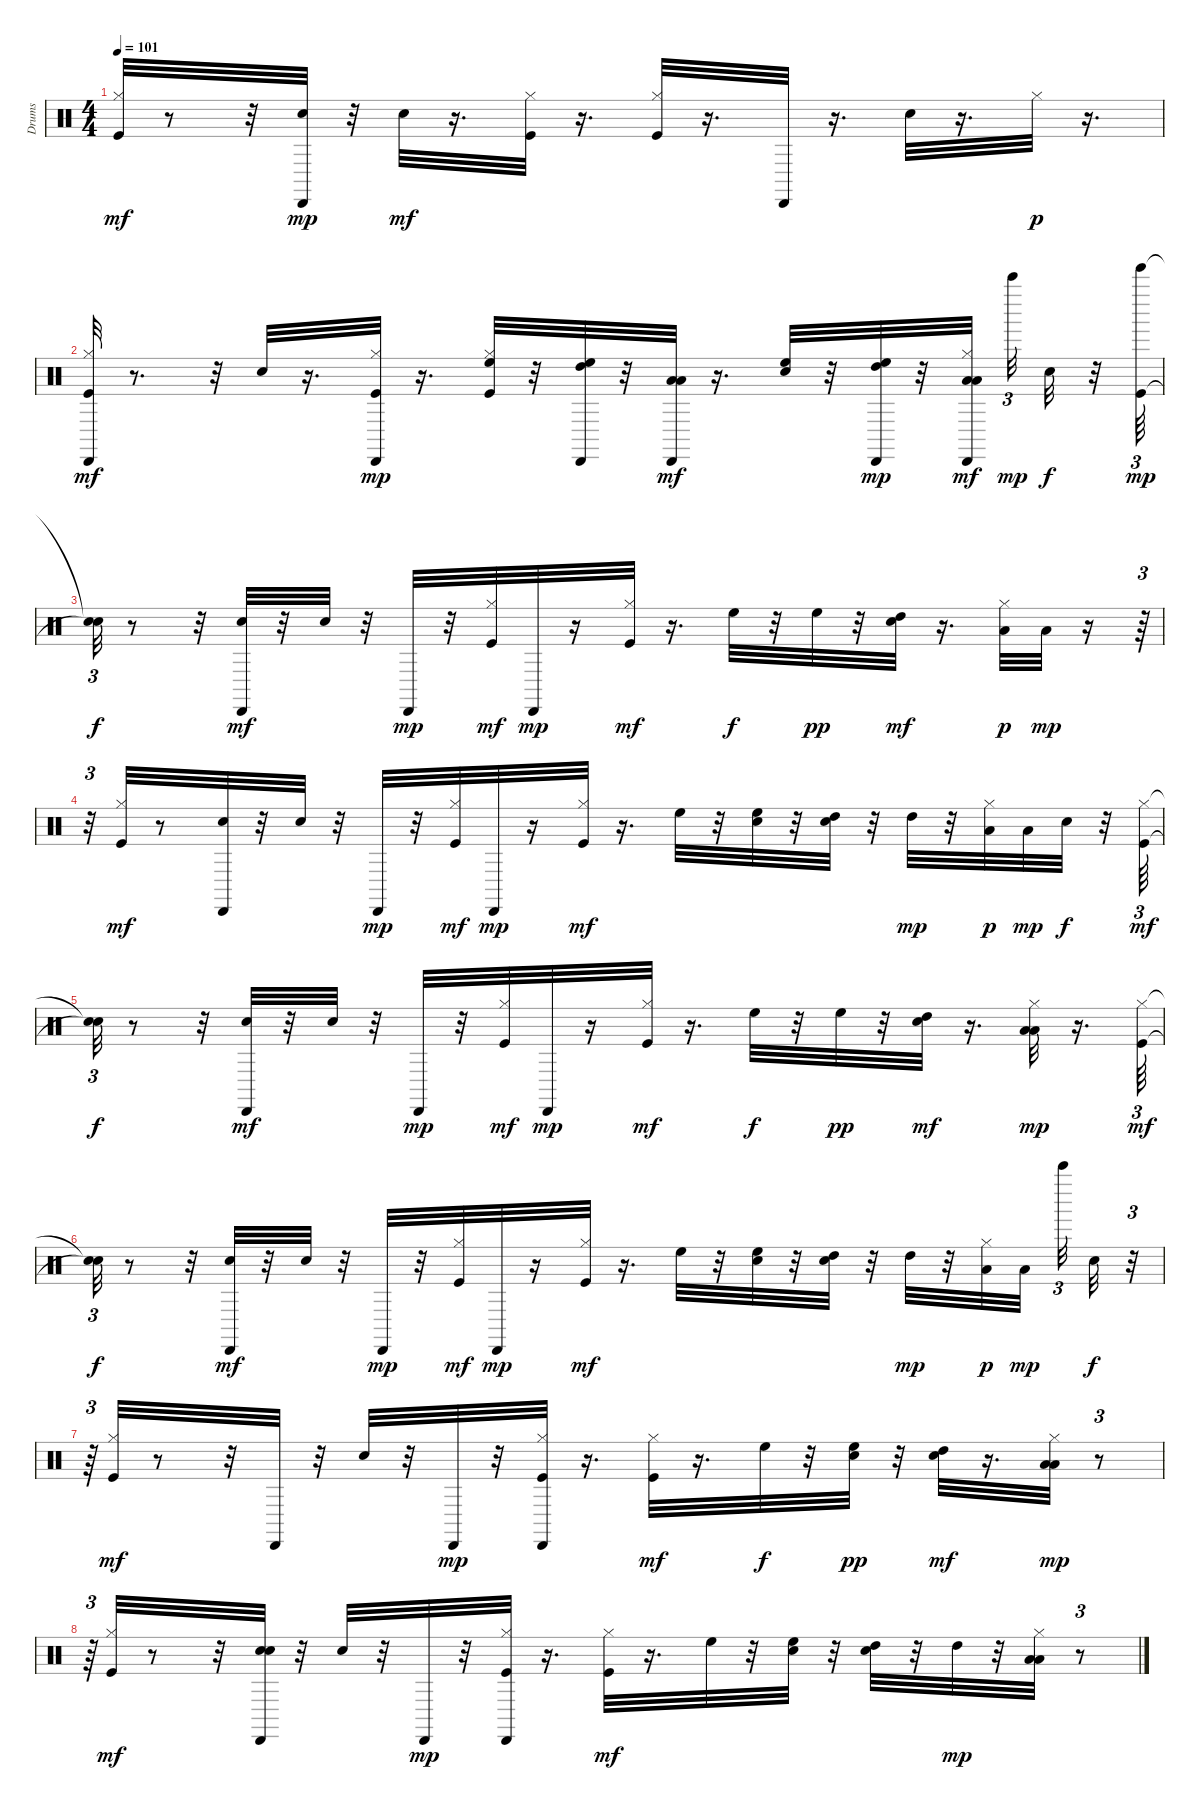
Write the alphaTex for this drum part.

\track ("Drums" "Drums") {instrument percussion}
\staff {score}
\articulation defaults
\ts (4 4)
\tempo 101
\clef neutral
\ks c
("Kick (hit)" "Hi-Hat (closed)").32{dy mf} r.8 r.32 ("Hand Clap (hit)" "Cabasa (hit)").32{dy mp} r.32 "Snare (hit) 2".32{dy mf} r.16{d} ("Kick (hit)" "Hi-Hat (closed)").32 r.16{d} ("Kick (hit)" "Hi-Hat (closed)").32 r.16{d} "Cabasa (hit)".32 r.16{d} "Snare (hit) 2".32 r.16{d} "Hi-Hat (closed)".32{dy p} r.16{d} |
("Kick (hit)" "Hi-Hat (closed)" "Cabasa (hit)").32{dy mf} r.8{d} r.32 "Snare (hit) 2".32 r.16{d} ("Kick (hit)" "Hi-Hat (closed)" "Cabasa (hit)").32{dy mp} r.16{d} ("Kick (hit)" "Hi-Hat (closed)" "High Floor Tom (hit)").32 r.32 ("High Tom (hit)" "High Floor Tom (hit)" "Cabasa (hit)").32 r.32 ("Low Floor Tom (hit)" "Low Tom (hit)" "Cabasa (hit)").32{dy mf} r.16{d} ("Snare (hit) 2" "High Floor Tom (hit)").32 r.32 ("High Tom (hit)" "High Floor Tom (hit)" "Cabasa (hit)").32{dy mp} r.32 ("Low Floor Tom (hit)" "Hi-Hat (closed)" "Low Tom (hit)" "Cabasa (hit)").32{dy mf beam splitsecondary} "Bell Tree (hit)".32{tu (3 2) dy mp} "Hand Clap (hit)".32{dy f} r.32 ("Kick (hit)" "Tinkle Bell (hit)").64{tu (3 2) dy mp} |
("Snare (hit)"{t} "Snare (hit)"{t}).32{tu (3 2) dy f} r.8 r.32 ("Hand Clap (hit)" "Cabasa (hit)").32{dy mf} r.32 "Snare (hit) 2".32 r.32 "Cabasa (hit)".32{dy mp} r.32 ("Kick (hit)" "Hi-Hat (closed)").32{dy mf} "Cabasa (hit)".32{dy mp} r.16 ("Kick (hit)" "Hi-Hat (closed)").32{dy mf} r.16{d} "High Floor Tom (hit)".32{dy f} r.32 "High Floor Tom (hit)".32{dy pp} r.32 ("Snare (hit) 2" "High Tom (hit)").32{dy mf} r.16{d} ("Low Floor Tom (hit)" "Hi-Hat (closed)").32{dy p} "Low Tom (hit)".32{dy mp} r.16 r.64{tu (3 2)} |
r.32{tu (3 2)} ("Kick (hit)" "Hi-Hat (closed)").32{dy mf} r.8 ("Hand Clap (hit)" "Cabasa (hit)").32 r.32 "Snare (hit) 2".32 r.32 "Cabasa (hit)".32{dy mp} r.32 ("Kick (hit)" "Hi-Hat (closed)").32{dy mf} "Cabasa (hit)".32{dy mp} r.16 ("Kick (hit)" "Hi-Hat (closed)").32{dy mf} r.16{d} "High Floor Tom (hit)".32 r.32 ("Hand Clap (hit)" "High Floor Tom (hit)").32 r.32 ("Snare (hit) 2" "High Tom (hit)").32 r.32 "High Tom (hit)".32{dy mp} r.32 ("Low Floor Tom (hit)" "Hi-Hat (closed)").32{dy p} "Low Tom (hit)".32{dy mp} "Hand Clap (hit)".32{dy f} r.32 ("Kick (hit)" "Hi-Hat (closed)").64{tu (3 2) dy mf} |
("Snare (hit)"{t} "Snare (hit)"{t}).32{tu (3 2) dy f} r.8 r.32 ("Hand Clap (hit)" "Cabasa (hit)").32{dy mf} r.32 "Snare (hit) 2".32 r.32 "Cabasa (hit)".32{dy mp} r.32 ("Kick (hit)" "Hi-Hat (closed)").32{dy mf} "Cabasa (hit)".32{dy mp} r.16 ("Kick (hit)" "Hi-Hat (closed)").32{dy mf} r.16{d} "High Floor Tom (hit)".32{dy f} r.32 "High Floor Tom (hit)".32{dy pp} r.32 ("Snare (hit) 2" "High Tom (hit)").32{dy mf} r.16{d} ("Low Floor Tom (hit)" "Hi-Hat (closed)" "Low Tom (hit)").32{dy mp} r.16{d} ("Kick (hit)" "Hi-Hat (closed)").64{tu (3 2) dy mf} |
("Snare (hit)"{t} "Snare (hit)"{t}).32{tu (3 2) dy f} r.8 r.32 ("Hand Clap (hit)" "Cabasa (hit)").32{dy mf} r.32 "Snare (hit) 2".32 r.32 "Cabasa (hit)".32{dy mp} r.32 ("Kick (hit)" "Hi-Hat (closed)").32{dy mf} "Cabasa (hit)".32{dy mp} r.16 ("Kick (hit)" "Hi-Hat (closed)").32{dy mf} r.16{d} "High Floor Tom (hit)".32 r.32 ("Hand Clap (hit)" "High Floor Tom (hit)").32 r.32 ("Snare (hit) 2" "High Tom (hit)").32 r.32 "High Tom (hit)".32{dy mp} r.32 ("Low Floor Tom (hit)" "Hi-Hat (closed)").32{dy p} "Low Tom (hit)".32{dy mp beam splitsecondary} "Bell Tree (hit)".32{tu (3 2)} "Hand Clap (hit)".32{dy f} r.32{tu (3 2)} |
r.64{tu (3 2)} ("Kick (hit)" "Hi-Hat (closed)").32{dy mf} r.8 r.32 "Cabasa (hit)".32 r.32 "Snare (hit) 2".32 r.32 "Cabasa (hit)".32{dy mp} r.32 ("Kick (hit)" "Hi-Hat (closed)" "Cabasa (hit)").32 r.16{d} ("Kick (hit)" "Hi-Hat (closed)").32{dy mf} r.16{d} "High Floor Tom (hit)".32{dy f} r.32 ("Hand Clap (hit)" "High Floor Tom (hit)").32{dy pp} r.32 ("Snare (hit) 2" "High Tom (hit)").32{dy mf} r.16{d} ("Low Floor Tom (hit)" "Hi-Hat (closed)" "Low Tom (hit)").32{dy mp} r.8{tu (3 2)} |
r.64{tu (3 2)} ("Kick (hit)" "Hi-Hat (closed)").32{dy mf} r.8 r.32 ("Hand Clap (hit)" "Hand Clap (hit)" "Cabasa (hit)").32 r.32 "Snare (hit) 2".32 r.32 "Cabasa (hit)".32{dy mp} r.32 ("Kick (hit)" "Hi-Hat (closed)" "Cabasa (hit)").32 r.16{d} ("Kick (hit)" "Hi-Hat (closed)").32{dy mf} r.16{d} "High Floor Tom (hit)".32 r.32 ("Hand Clap (hit)" "High Floor Tom (hit)").32 r.32 ("Snare (hit) 2" "High Tom (hit)").32 r.32 "High Tom (hit)".32{dy mp} r.32 ("Low Floor Tom (hit)" "Hi-Hat (closed)" "Low Tom (hit)").32 r.8{tu (3 2)}
